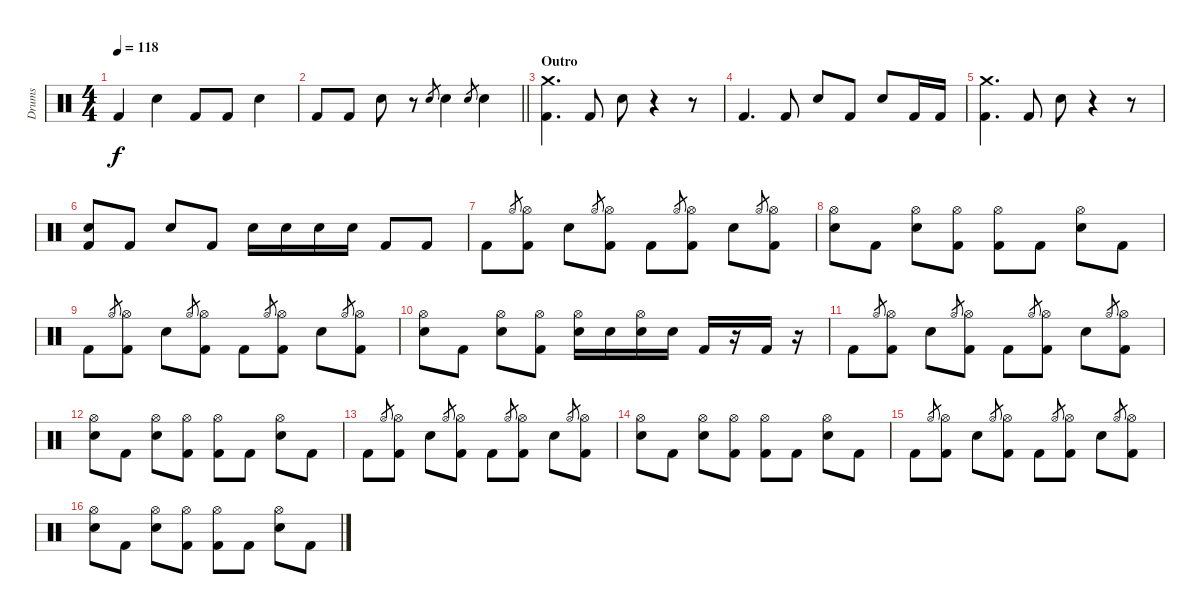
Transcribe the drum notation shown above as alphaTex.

\track ("Drums" "Drums") {instrument percussion}
\staff {score}
\articulation defaults
\ts (4 4)
\tempo 118
\clef neutral
\ks c "Kick (hit) 2".4{dy f} "Snare (hit) 2".4 "Kick (hit) 2".8 "Kick (hit) 2".8 "Snare (hit) 2".4
|
\barLineRight lightlight "Kick (hit) 2".8 "Kick (hit) 2".8 "Snare (hit) 2".8
r.8 "Snare (hit) 2".8{gr} "Snare (hit) 2".4 "Snare (hit) 2".8{gr} "Snare (hit) 2".4 |
\section ("" "Outro")
("Crash medium (hit)" "Kick (hit) 2").4{d} "Kick (hit) 2".8 "Snare (hit) 2".8 r.4 r.8 |
"Kick (hit) 2".4{d} "Kick (hit) 2".8 "Snare (hit) 2".8 "Kick (hit) 2".8 "Snare (hit) 2".8 "Kick (hit) 2".16 "Kick (hit) 2".16 |
("Crash medium (hit)" "Kick (hit) 2").4{d} "Kick (hit) 2".8 "Snare (hit) 2".8 r.4 r.8 |
("Snare (hit) 2" "Kick (hit) 2").8 "Kick (hit) 2".8 "Snare (hit) 2".8 "Kick (hit) 2".8 "Snare (hit) 2".16 "Snare (hit) 2".16 "Snare (hit) 2".16 "Snare (hit) 2".16 "Kick (hit) 2".8 "Kick (hit) 2".8 |
"Kick (hit) 2".8 "Hi-Hat (open)".8{gr} ("Hi-Hat (open)" "Kick (hit) 2").8 "Snare (hit) 2".8 "Hi-Hat (open)".8{gr} ("Hi-Hat (open)" "Kick (hit) 2").8 "Kick (hit) 2".8 "Hi-Hat (open)".8{gr} ("Hi-Hat (open)" "Kick (hit) 2").8 "Snare (hit) 2".8 "Hi-Hat (open)".8{gr} ("Hi-Hat (open)" "Kick (hit) 2").8 |
("Hi-Hat (open)" "Snare (hit) 2").8 "Kick (hit) 2".8 ("Hi-Hat (open)" "Snare (hit) 2").8 ("Hi-Hat (open)" "Kick (hit) 2").8 ("Hi-Hat (open)" "Kick (hit) 2").8 "Kick (hit) 2".8 ("Hi-Hat (open)" "Snare (hit) 2").8 "Kick (hit) 2".8 |
"Kick (hit) 2".8 "Hi-Hat (open)".8{gr} ("Hi-Hat (open)" "Kick (hit) 2").8 "Snare (hit) 2".8 "Hi-Hat (open)".8{gr} ("Hi-Hat (open)" "Kick (hit) 2").8 "Kick (hit) 2".8 "Hi-Hat (open)".8{gr} ("Hi-Hat (open)" "Kick (hit) 2").8 "Snare (hit) 2".8 "Hi-Hat (open)".8{gr} ("Hi-Hat (open)" "Kick (hit) 2").8 |
("Hi-Hat (open)" "Snare (hit) 2").8 "Kick (hit) 2".8 ("Hi-Hat (open)" "Snare (hit) 2").8 ("Hi-Hat (open)" "Kick (hit) 2").8 ("Hi-Hat (open)" "Snare (hit) 2").16 "Snare (hit) 2".16 ("Hi-Hat (open)" "Snare (hit) 2").16 "Snare (hit) 2".16 "Kick (hit) 2".16 r.16 "Kick (hit) 2".16 r.16 |
"Kick (hit) 2".8 "Hi-Hat (open)".8{gr} ("Hi-Hat (open)" "Kick (hit) 2").8 "Snare (hit) 2".8 "Hi-Hat (open)".8{gr} ("Hi-Hat (open)" "Kick (hit) 2").8 "Kick (hit) 2".8 "Hi-Hat (open)".8{gr} ("Hi-Hat (open)" "Kick (hit) 2").8 "Snare (hit) 2".8 "Hi-Hat (open)".8{gr} ("Hi-Hat (open)" "Kick (hit) 2").8 |
("Hi-Hat (open)" "Snare (hit) 2").8 "Kick (hit) 2".8 ("Hi-Hat (open)" "Snare (hit) 2").8 ("Hi-Hat (open)" "Kick (hit) 2").8 ("Hi-Hat (open)" "Kick (hit) 2").8 "Kick (hit) 2".8 ("Hi-Hat (open)" "Snare (hit) 2").8 "Kick (hit) 2".8 |
"Kick (hit) 2".8 "Hi-Hat (open)".8{gr} ("Hi-Hat (open)" "Kick (hit) 2").8 "Snare (hit) 2".8 "Hi-Hat (open)".8{gr} ("Hi-Hat (open)" "Kick (hit) 2").8 "Kick (hit) 2".8 "Hi-Hat (open)".8{gr} ("Hi-Hat (open)" "Kick (hit) 2").8 "Snare (hit) 2".8 "Hi-Hat (open)".8{gr} ("Hi-Hat (open)" "Kick (hit) 2").8 |
("Hi-Hat (open)" "Snare (hit) 2").8 "Kick (hit) 2".8 ("Hi-Hat (open)" "Snare (hit) 2").8 ("Hi-Hat (open)" "Kick (hit) 2").8 ("Hi-Hat (open)" "Kick (hit) 2").8 "Kick (hit) 2".8 ("Hi-Hat (open)" "Snare (hit) 2").8 "Kick (hit) 2".8 |
"Kick (hit) 2".8 "Hi-Hat (open)".8{gr} ("Hi-Hat (open)" "Kick (hit) 2").8 "Snare (hit) 2".8 "Hi-Hat (open)".8{gr} ("Hi-Hat (open)" "Kick (hit) 2").8 "Kick (hit) 2".8 "Hi-Hat (open)".8{gr} ("Hi-Hat (open)" "Kick (hit) 2").8 "Snare (hit) 2".8 "Hi-Hat (open)".8{gr} ("Hi-Hat (open)" "Kick (hit) 2").8 |
("Hi-Hat (open)" "Snare (hit) 2").8 "Kick (hit) 2".8 ("Hi-Hat (open)" "Snare (hit) 2").8 ("Hi-Hat (open)" "Kick (hit) 2").8 ("Hi-Hat (open)" "Kick (hit) 2").8 "Kick (hit) 2".8 ("Hi-Hat (open)" "Snare (hit) 2").8 "Kick (hit) 2".8
